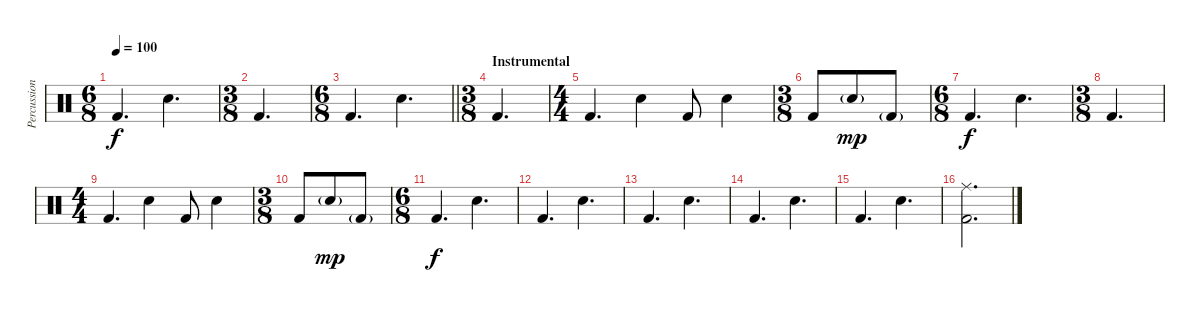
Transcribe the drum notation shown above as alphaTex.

\track ("Percussion" "Percussion") {instrument percussion}
\staff {score}
\articulation defaults
\ts (6 8)
\tempo 100
\clef neutral
\ks c "Kick (hit) 2".4{d dy f} "Snare (hit) 2".4{d}
|
\ts (3 8)
"Kick (hit) 2".4{d} |
\ts (6 8)
\barLineRight lightlight "Kick (hit) 2".4{d} "Snare (hit) 2".4{d}
|
\ts (3 8)
\section ("" "Instrumental")
"Kick (hit) 2".4{d} |
\ts (4 4)
"Kick (hit) 2".4{d} "Snare (hit) 2".4 "Kick (hit) 2".8 "Snare (hit) 2".4 |
\ts (3 8)
"Kick (hit) 2".8 "Snare (hit) 2"{g}.8{dy mp} "Kick (hit) 2"{g}.8 |
\ts (6 8)
"Kick (hit) 2".4{d dy f} "Snare (hit) 2".4{d} |
\ts (3 8)
"Kick (hit) 2".4{d} |
\ts (4 4)
"Kick (hit) 2".4{d} "Snare (hit) 2".4 "Kick (hit) 2".8 "Snare (hit) 2".4 |
\ts (3 8)
"Kick (hit) 2".8 "Snare (hit) 2"{g}.8{dy mp} "Kick (hit) 2"{g}.8 |
\ts (6 8)
"Kick (hit) 2".4{d dy f} "Snare (hit) 2".4{d} |
"Kick (hit) 2".4{d} "Snare (hit) 2".4{d} |
"Kick (hit) 2".4{d} "Snare (hit) 2".4{d} |
"Kick (hit) 2".4{d} "Snare (hit) 2".4{d} |
"Kick (hit) 2".4{d} "Snare (hit) 2".4{d} |
("Ride (middle)" "Kick (hit) 2").2{d}
